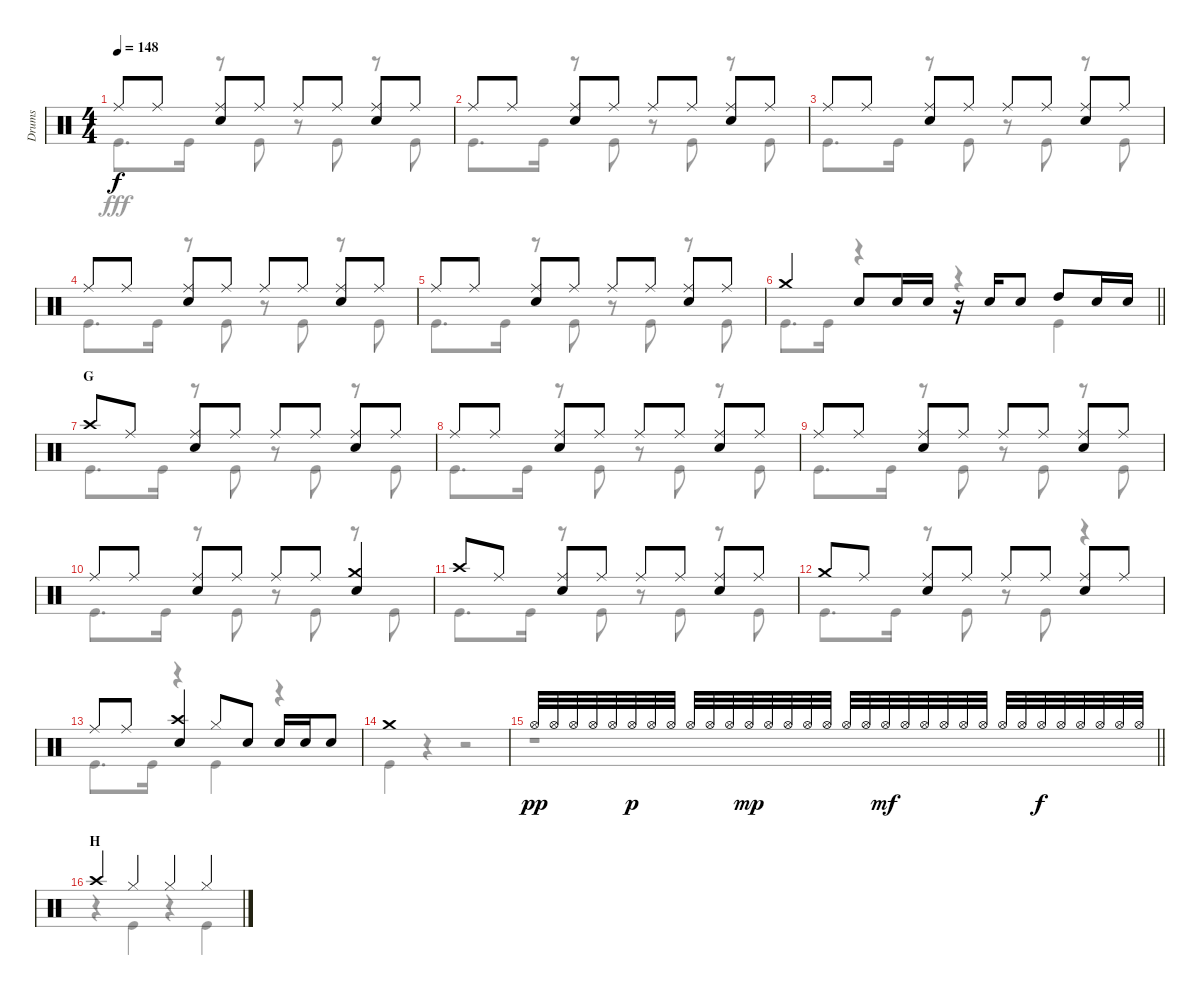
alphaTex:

\track ("Drums" "Drums") {instrument percussion}
\staff {score}
\articulation defaults
\voice
\ts (4 4)
\tempo 148
\clef neutral
\ks c "Ride (middle)".8{dy f} "Ride (middle)".8
("Ride (middle)" "Snare (hit) 2").8 "Ride (middle)".8 "Ride (middle)".8 "Ride (middle)".8 ("Ride (middle)" "Snare (hit) 2").8 "Ride (middle)".8 |
"Ride (middle)".8 "Ride (middle)".8 ("Ride (middle)" "Snare (hit) 2").8 "Ride (middle)".8 "Ride (middle)".8 "Ride (middle)".8 ("Ride (middle)" "Snare (hit) 2").8 "Ride (middle)".8 |
"Ride (middle)".8 "Ride (middle)".8 ("Ride (middle)" "Snare (hit) 2").8 "Ride (middle)".8 "Ride (middle)".8 "Ride (middle)".8 ("Ride (middle)" "Snare (hit) 2").8 "Ride (middle)".8 |
"Ride (middle)".8 "Ride (middle)".8 ("Ride (middle)" "Snare (hit) 2").8 "Ride (middle)".8 "Ride (middle)".8 "Ride (middle)".8 ("Ride (middle)" "Snare (hit) 2").8 "Ride (middle)".8 |
"Ride (middle)".8 "Ride (middle)".8 ("Ride (middle)" "Snare (hit) 2").8 "Ride (middle)".8 "Ride (middle)".8 "Ride (middle)".8 ("Ride (middle)" "Snare (hit) 2").8 "Ride (middle)".8 |
\barLineRight lightlight "Crash medium (hit)".4 "Snare (hit) 2".8 "Snare (hit) 2".16 "Snare (hit) 2".16
r.16 "Snare (hit) 2".16 "Snare (hit) 2".8 "High Tom (hit)".8 "Snare (hit) 2".16 "Snare (hit) 2".16 |
\section ("" "G")
"Crash high (hit)".8 "Ride (middle)".8 ("Ride (middle)" "Snare (hit) 2").8 "Ride (middle)".8 "Ride (middle)".8 "Ride (middle)".8 ("Ride (middle)" "Snare (hit) 2").8 "Ride (middle)".8 |
"Ride (middle)".8 "Ride (middle)".8 ("Ride (middle)" "Snare (hit) 2").8 "Ride (middle)".8 "Ride (middle)".8 "Ride (middle)".8 ("Ride (middle)" "Snare (hit) 2").8 "Ride (middle)".8 |
"Ride (middle)".8 "Ride (middle)".8 ("Ride (middle)" "Snare (hit) 2").8 "Ride (middle)".8 "Ride (middle)".8 "Ride (middle)".8 ("Ride (middle)" "Snare (hit) 2").8 "Ride (middle)".8 |
"Ride (middle)".8 "Ride (middle)".8 ("Ride (middle)" "Snare (hit) 2").8 "Ride (middle)".8 "Ride (middle)".8 "Ride (middle)".8 ("Crash medium (hit)" "Snare (hit) 2").4 |
"Crash high (hit)".8 "Ride (middle)".8 ("Ride (middle)" "Snare (hit) 2").8 "Ride (middle)".8 "Ride (middle)".8 "Ride (middle)".8 ("Ride (middle)" "Snare (hit) 2").8 "Ride (middle)".8 |
"Crash medium (hit)".8 "Ride (middle)".8 ("Ride (middle)" "Snare (hit) 2").8 "Ride (middle)".8 "Ride (middle)".8 "Ride (middle)".8 ("Ride (middle)" "Snare (hit) 2").8 "Ride (middle)".8 |
"Ride (middle)".8 "Ride (middle)".8 ("Crash high (hit)" "Snare (hit) 2").4 "Hi-Hat (closed)".8 "Snare (hit) 2".8 "Snare (hit) 2".16 "Snare (hit) 2".16 "Snare (hit) 2".8 |
"Crash medium (hit)".1 |
\barLineRight lightlight "Hi-Hat (open)".32{dy pp} "Hi-Hat (open)".32 "Hi-Hat (open)".32 "Hi-Hat (open)".32 "Hi-Hat (open)".32 "Hi-Hat (open)".32{dy p} "Hi-Hat (open)".32 "Hi-Hat (open)".32 "Hi-Hat (open)".32 "Hi-Hat (open)".32 "Hi-Hat (open)".32 "Hi-Hat (open)".32{dy mp} "Hi-Hat (open)".32 "Hi-Hat (open)".32 "Hi-Hat (open)".32 "Hi-Hat (open)".32 "Hi-Hat (open)".32 "Hi-Hat (open)".32 "Hi-Hat (open)".32{dy mf} "Hi-Hat (open)".32 "Hi-Hat (open)".32 "Hi-Hat (open)".32 "Hi-Hat (open)".32 "Hi-Hat (open)".32 "Hi-Hat (open)".32 "Hi-Hat (open)".32 "Hi-Hat (open)".32{dy f} "Hi-Hat (open)".32 "Hi-Hat (open)".32 "Hi-Hat (open)".32 "Hi-Hat (open)".32 "Hi-Hat (open)".32
|
\section ("" "H")
"Crash high (hit)".4 "Hi-Hat (closed)".4 "Hi-Hat (closed)".4 "Hi-Hat (closed)".4
\voice
\clef neutral
\ottava regular
\simile none
\ks c "Kick (hit)".8{d dy fff} "Kick (hit)".16
r.8 "Kick (hit)".8 r.8 "Kick (hit)".8 r.8 "Kick (hit)".8 |
"Kick (hit)".8{d} "Kick (hit)".16 r.8 "Kick (hit)".8 r.8 "Kick (hit)".8 r.8 "Kick (hit)".8 |
"Kick (hit)".8{d} "Kick (hit)".16 r.8 "Kick (hit)".8 r.8 "Kick (hit)".8 r.8 "Kick (hit)".8 |
"Kick (hit)".8{d} "Kick (hit)".16 r.8 "Kick (hit)".8 r.8 "Kick (hit)".8 r.8 "Kick (hit)".8 |
"Kick (hit)".8{d} "Kick (hit)".16 r.8 "Kick (hit)".8 r.8 "Kick (hit)".8 r.8 "Kick (hit)".8 |
\barLineRight lightlight "Kick (hit)".8{d} "Kick (hit)".16
r.4 r.4 "Kick (hit)".4 |
"Kick (hit)".8{d} "Kick (hit)".16 r.8 "Kick (hit)".8 r.8 "Kick (hit)".8 r.8 "Kick (hit)".8 |
"Kick (hit)".8{d} "Kick (hit)".16 r.8 "Kick (hit)".8 r.8 "Kick (hit)".8 r.8 "Kick (hit)".8 |
"Kick (hit)".8{d} "Kick (hit)".16 r.8 "Kick (hit)".8 r.8 "Kick (hit)".8 r.8 "Kick (hit)".8 |
"Kick (hit)".8{d} "Kick (hit)".16 r.8 "Kick (hit)".8 r.8 "Kick (hit)".8 r.8 "Kick (hit)".8 |
"Kick (hit)".8{d} "Kick (hit)".16 r.8 "Kick (hit)".8 r.8 "Kick (hit)".8 r.8 "Kick (hit)".8 |
"Kick (hit)".8{d} "Kick (hit)".16 r.8 "Kick (hit)".8 r.8 "Kick (hit)".8 r.4 |
"Kick (hit)".8{d} "Kick (hit)".16 r.4 "Kick (hit)".4 r.4 |
"Kick (hit)".4 r.4 r.2 |
\barLineRight lightlight
r.1 |
r.4 "Kick (hit)".4 r.4 "Kick (hit)".4
